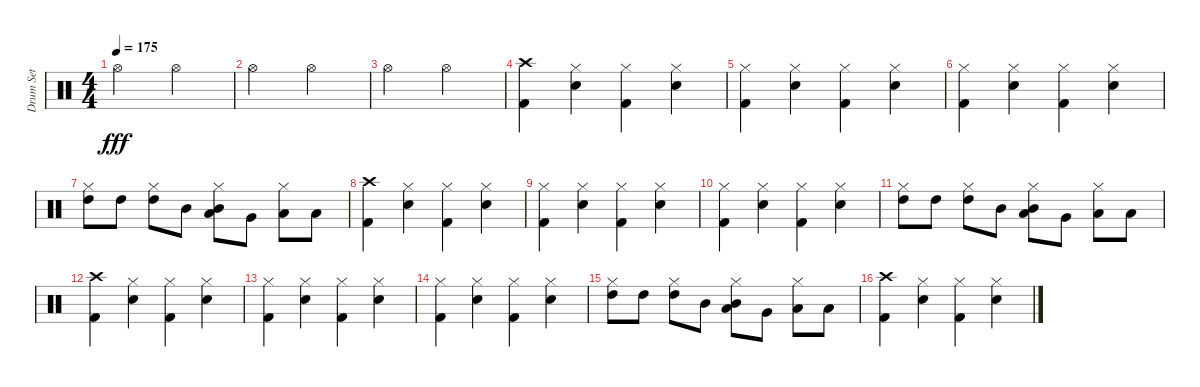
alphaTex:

\track ("Drum Set" "Drum Set") {instrument percussion}
\staff {score}
\articulation defaults
\ts (4 4)
\tempo 175
\clef neutral
\ks c "Hi-Hat (open)".2{dy fff} "Hi-Hat (open)".2
|
"Hi-Hat (open)".2 "Hi-Hat (open)".2 |
"Hi-Hat (open)".2 "Hi-Hat (open)".2 |
("Kick (hit) 2" "Crash high (hit)").4 ("Electric Snare (hit)" "Hi-Hat (closed)").4 ("Kick (hit) 2" "Hi-Hat (closed)").4 ("Electric Snare (hit)" "Hi-Hat (closed)").4 |
("Kick (hit) 2" "Hi-Hat (closed)").4 ("Electric Snare (hit)" "Hi-Hat (closed)").4 ("Kick (hit) 2" "Hi-Hat (closed)").4 ("Electric Snare (hit)" "Hi-Hat (closed)").4 |
("Kick (hit) 2" "Hi-Hat (closed)").4 ("Electric Snare (hit)" "Hi-Hat (closed)").4 ("Kick (hit) 2" "Hi-Hat (closed)").4 ("Electric Snare (hit)" "Hi-Hat (closed)").4 |
("High Tom (hit)" "Hi-Hat (closed)").8 "High Tom (hit)".8 ("High Tom (hit)" "Hi-Hat (closed)").8 "Mid Tom (hit)".8 ("Low Tom (hit)" "Mid Tom (hit)" "Hi-Hat (closed)").8 "Very Low Tom (hit)".8 ("Hi-Hat (closed)" "Low Floor Tom (hit)").8 "Low Floor Tom (hit)".8 |
("Kick (hit) 2" "Crash high (hit)").4 ("Electric Snare (hit)" "Hi-Hat (closed)").4 ("Kick (hit) 2" "Hi-Hat (closed)").4 ("Electric Snare (hit)" "Hi-Hat (closed)").4 |
("Kick (hit) 2" "Hi-Hat (closed)").4 ("Electric Snare (hit)" "Hi-Hat (closed)").4 ("Kick (hit) 2" "Hi-Hat (closed)").4 ("Electric Snare (hit)" "Hi-Hat (closed)").4 |
("Kick (hit) 2" "Hi-Hat (closed)").4 ("Electric Snare (hit)" "Hi-Hat (closed)").4 ("Kick (hit) 2" "Hi-Hat (closed)").4 ("Electric Snare (hit)" "Hi-Hat (closed)").4 |
("High Tom (hit)" "Hi-Hat (closed)").8 "High Tom (hit)".8 ("High Tom (hit)" "Hi-Hat (closed)").8 "Mid Tom (hit)".8 ("Low Tom (hit)" "Mid Tom (hit)" "Hi-Hat (closed)").8 "Very Low Tom (hit)".8 ("Low Floor Tom (hit)" "Hi-Hat (closed)").8 "Low Floor Tom (hit)".8 |
("Kick (hit) 2" "Crash high (hit)").4 ("Electric Snare (hit)" "Hi-Hat (closed)").4 ("Kick (hit) 2" "Hi-Hat (closed)").4 ("Electric Snare (hit)" "Hi-Hat (closed)").4 |
("Kick (hit) 2" "Hi-Hat (closed)").4 ("Electric Snare (hit)" "Hi-Hat (closed)").4 ("Kick (hit) 2" "Hi-Hat (closed)").4 ("Electric Snare (hit)" "Hi-Hat (closed)").4 |
("Kick (hit) 2" "Hi-Hat (closed)").4 ("Electric Snare (hit)" "Hi-Hat (closed)").4 ("Kick (hit) 2" "Hi-Hat (closed)").4 ("Electric Snare (hit)" "Hi-Hat (closed)").4 |
("High Tom (hit)" "Hi-Hat (closed)").8 "High Tom (hit)".8 ("High Tom (hit)" "Hi-Hat (closed)").8 "Mid Tom (hit)".8 ("Low Tom (hit)" "Mid Tom (hit)" "Hi-Hat (closed)").8 "Very Low Tom (hit)".8 ("Hi-Hat (closed)" "Low Floor Tom (hit)").8 "Low Floor Tom (hit)".8 |
("Kick (hit) 2" "Crash high (hit)").4 ("Electric Snare (hit)" "Hi-Hat (closed)").4 ("Kick (hit) 2" "Hi-Hat (closed)").4 ("Electric Snare (hit)" "Hi-Hat (closed)").4
